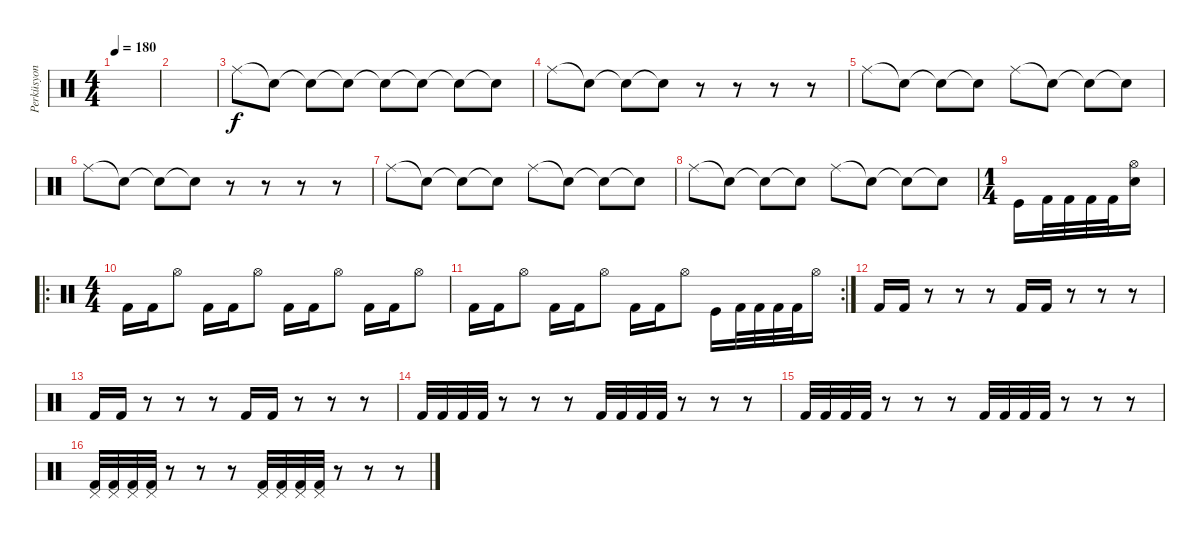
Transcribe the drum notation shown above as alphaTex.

\track ("Perküsyon" "Perküsyon") {instrument percussion}
\staff {score}
\articulation defaults
\ts (4 4)
\tempo 180
\clef neutral
\ks c
|
|
"Ride (middle)".8 "Snare (hit)"{t}.8 "Snare (hit)"{t}.8 "Snare (hit)"{t}.8 "Snare (hit)"{t}.8 "Snare (hit)"{t}.8 "Snare (hit)"{t}.8 "Snare (hit)"{t}.8 |
"Ride (middle)".8 "Snare (hit)"{t}.8 "Snare (hit)"{t}.8 "Snare (hit)"{t}.8 r.8 r.8 r.8 r.8 |
"Ride (middle)".8 "Snare (hit)"{t}.8 "Snare (hit)"{t}.8 "Snare (hit)"{t}.8 "Ride (middle)".8 "Snare (hit)"{t}.8 "Snare (hit)"{t}.8 "Snare (hit)"{t}.8 |
"Ride (middle)".8 "Snare (hit)"{t}.8 "Snare (hit)"{t}.8 "Snare (hit)"{t}.8 r.8 r.8 r.8 r.8 |
"Ride (middle)".8 "Snare (hit)"{t}.8 "Snare (hit)"{t}.8 "Snare (hit)"{t}.8 "Ride (middle)".8 "Snare (hit)"{t}.8 "Snare (hit)"{t}.8 "Snare (hit)"{t}.8 |
"Ride (middle)".8 "Snare (hit)"{t}.8 "Snare (hit)"{t}.8 "Snare (hit)"{t}.8 "Ride (middle)".8 "Snare (hit)"{t}.8 "Snare (hit)"{t}.8 "Snare (hit)"{t}.8 |
\ts (1 4)
"Kick (hit)".16 "Kick (hit) 2".32 "Kick (hit) 2".32 "Kick (hit) 2".32 "Kick (hit) 2".32 ("Hi-Hat (open)" "Snare (hit)").16 |
\ro
\ts (4 4)
"Kick (hit) 2".16 "Kick (hit) 2".16 "Hi-Hat (open)".8 "Kick (hit) 2".16 "Kick (hit) 2".16 "Hi-Hat (open)".8 "Kick (hit) 2".16 "Kick (hit) 2".16 "Hi-Hat (open)".8 "Kick (hit) 2".16 "Kick (hit) 2".16 "Hi-Hat (open)".8 |
\rc 2 "Kick (hit) 2".16 "Kick (hit) 2".16 "Hi-Hat (open)".8 "Kick (hit) 2".16 "Kick (hit) 2".16 "Hi-Hat (open)".8 "Kick (hit) 2".16 "Kick (hit) 2".16 "Hi-Hat (open)".8 "Kick (hit)".16 "Kick (hit) 2".32 "Kick (hit) 2".32 "Kick (hit) 2".32 "Kick (hit) 2".32 "Hi-Hat (open)".16
|
"Kick (hit) 2".16 "Kick (hit) 2".16 r.8 r.8 r.8 "Kick (hit) 2".16 "Kick (hit) 2".16 r.8 r.8 r.8 |
"Kick (hit) 2".16 "Kick (hit) 2".16 r.8 r.8 r.8 "Kick (hit) 2".16 "Kick (hit) 2".16 r.8 r.8 r.8 |
"Kick (hit) 2".32 "Kick (hit) 2".32 "Kick (hit) 2".32 "Kick (hit) 2".32 r.8 r.8 r.8 "Kick (hit) 2".32 "Kick (hit) 2".32 "Kick (hit) 2".32 "Kick (hit) 2".32 r.8 r.8 r.8 |
"Kick (hit) 2".32 "Kick (hit) 2".32 "Kick (hit) 2".32 "Kick (hit) 2".32 r.8 r.8 r.8 "Kick (hit) 2".32 "Kick (hit) 2".32 "Kick (hit) 2".32 "Kick (hit) 2".32 r.8 r.8 r.8 |
("Kick (hit) 2" "Pedal Hi-Hat (hit)").32 ("Kick (hit) 2" "Pedal Hi-Hat (hit)").32 ("Kick (hit) 2" "Pedal Hi-Hat (hit)").32 ("Kick (hit) 2" "Pedal Hi-Hat (hit)").32 r.8 r.8 r.8 ("Kick (hit) 2" "Pedal Hi-Hat (hit)").32 ("Kick (hit) 2" "Pedal Hi-Hat (hit)").32 ("Kick (hit) 2" "Pedal Hi-Hat (hit)").32 ("Kick (hit) 2" "Pedal Hi-Hat (hit)").32 r.8 r.8 r.8
